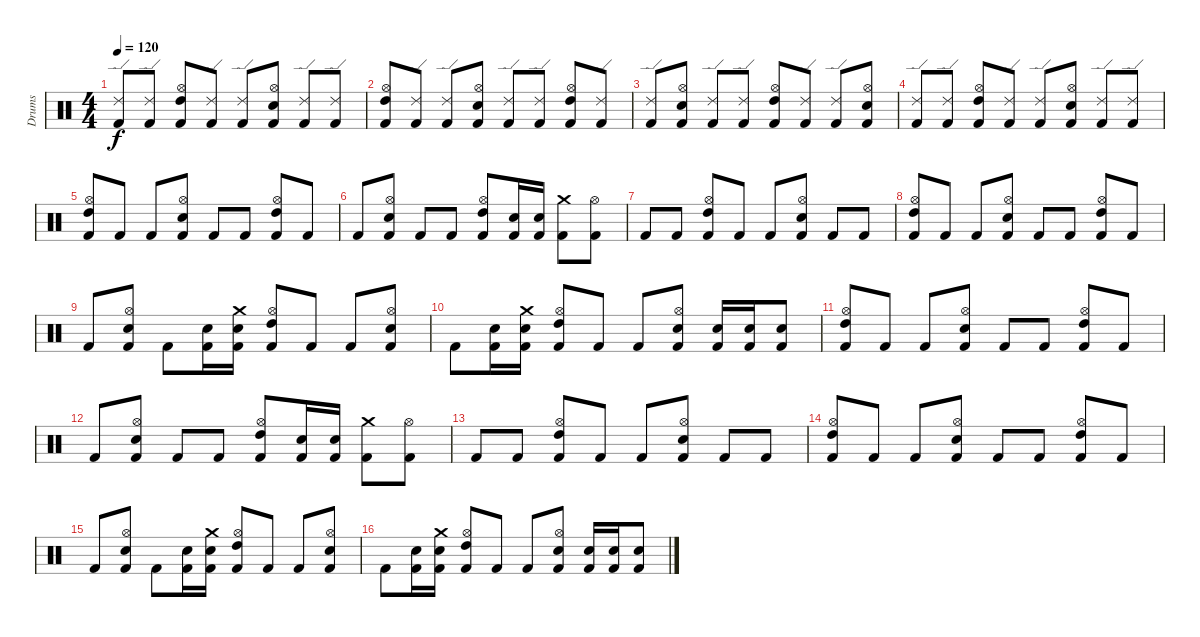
\track ("Drums" "Drums") {instrument percussion}
\staff {score}
\articulation defaults
\ts (4 4)
\tempo 120
\clef neutral
\ks c
("Ride (edge) 2" "Kick (hit) 2").8{dy f} ("Ride (edge) 2" "Kick (hit) 2").8 ("Hi-Hat (open)" "High Tom (hit)" "Kick (hit) 2").8 ("Ride (edge) 2" "Kick (hit) 2").8 ("Ride (edge) 2" "Kick (hit) 2").8 ("Hi-Hat (open)" "Snare (hit) 2" "Kick (hit) 2").8 ("Ride (edge) 2" "Kick (hit) 2").8 ("Ride (edge) 2" "Kick (hit) 2").8 |
("Hi-Hat (open)" "High Tom (hit)" "Kick (hit) 2").8 ("Ride (edge) 2" "Kick (hit) 2").8 ("Ride (edge) 2" "Kick (hit) 2").8 ("Hi-Hat (open)" "Snare (hit) 2" "Kick (hit) 2").8 ("Ride (edge) 2" "Kick (hit) 2").8 ("Ride (edge) 2" "Kick (hit) 2").8 ("Hi-Hat (open)" "High Tom (hit)" "Kick (hit) 2").8 ("Ride (edge) 2" "Kick (hit) 2").8 |
("Ride (edge) 2" "Kick (hit) 2").8 ("Hi-Hat (open)" "Snare (hit) 2" "Kick (hit) 2").8 ("Ride (edge) 2" "Kick (hit) 2").8 ("Ride (edge) 2" "Kick (hit) 2").8 ("Hi-Hat (open)" "High Tom (hit)" "Kick (hit) 2").8 ("Ride (edge) 2" "Kick (hit) 2").8 ("Ride (edge) 2" "Kick (hit) 2").8 ("Hi-Hat (open)" "Snare (hit) 2" "Kick (hit) 2").8 |
("Ride (edge) 2" "Kick (hit) 2").8 ("Ride (edge) 2" "Kick (hit) 2").8 ("Hi-Hat (open)" "High Tom (hit)" "Kick (hit) 2").8 ("Ride (edge) 2" "Kick (hit) 2").8 ("Ride (edge) 2" "Kick (hit) 2").8 ("Hi-Hat (open)" "Snare (hit) 2" "Kick (hit) 2").8 ("Ride (edge) 2" "Kick (hit) 2").8 ("Ride (edge) 2" "Kick (hit) 2").8 |
("Hi-Hat (open)" "High Tom (hit)" "Kick (hit) 2").8 "Kick (hit) 2".8 "Kick (hit) 2".8 ("Hi-Hat (open)" "Snare (hit) 2" "Kick (hit) 2").8 "Kick (hit) 2".8 "Kick (hit) 2".8 ("Hi-Hat (open)" "High Tom (hit)" "Kick (hit) 2").8 "Kick (hit) 2".8 |
"Kick (hit) 2".8 ("Hi-Hat (open)" "Snare (hit) 2" "Kick (hit) 2").8 "Kick (hit) 2".8 "Kick (hit) 2".8 ("Hi-Hat (open)" "High Tom (hit)" "Kick (hit) 2").8 ("Snare (hit) 2" "Kick (hit) 2").16 ("Snare (hit) 2" "Kick (hit) 2").16 ("Crash medium (hit)" "Kick (hit) 2").8 ("Hi-Hat (open)" "Kick (hit) 2").8 |
"Kick (hit) 2".8 "Kick (hit) 2".8 ("Hi-Hat (open)" "High Tom (hit)" "Kick (hit) 2").8 "Kick (hit) 2".8 "Kick (hit) 2".8 ("Hi-Hat (open)" "Snare (hit) 2" "Kick (hit) 2").8 "Kick (hit) 2".8 "Kick (hit) 2".8 |
("Hi-Hat (open)" "High Tom (hit)" "Kick (hit) 2").8 "Kick (hit) 2".8 "Kick (hit) 2".8 ("Hi-Hat (open)" "Snare (hit) 2" "Kick (hit) 2").8 "Kick (hit) 2".8 "Kick (hit) 2".8 ("Hi-Hat (open)" "High Tom (hit)" "Kick (hit) 2").8 "Kick (hit) 2".8 |
"Kick (hit) 2".8 ("Hi-Hat (open)" "Snare (hit) 2" "Kick (hit) 2").8 "Kick (hit) 2".8 ("Snare (hit) 2" "Kick (hit) 2").16 ("Crash medium (hit)" "Snare (hit) 2" "Kick (hit) 2").16 ("Hi-Hat (open)" "High Tom (hit)" "Kick (hit) 2").8 "Kick (hit) 2".8 "Kick (hit) 2".8 ("Hi-Hat (open)" "Snare (hit) 2" "Kick (hit) 2").8 |
"Kick (hit) 2".8 ("Snare (hit) 2" "Kick (hit) 2").16 ("Crash medium (hit)" "Snare (hit) 2" "Kick (hit) 2").16 ("Hi-Hat (open)" "High Tom (hit)" "Kick (hit) 2").8 "Kick (hit) 2".8 "Kick (hit) 2".8 ("Hi-Hat (open)" "Snare (hit) 2" "Kick (hit) 2").8 ("Snare (hit) 2" "Kick (hit) 2").16 ("Snare (hit) 2" "Kick (hit) 2").16 ("Snare (hit) 2" "Kick (hit) 2").8 |
("Hi-Hat (open)" "High Tom (hit)" "Kick (hit) 2").8 "Kick (hit) 2".8 "Kick (hit) 2".8 ("Hi-Hat (open)" "Snare (hit) 2" "Kick (hit) 2").8 "Kick (hit) 2".8 "Kick (hit) 2".8 ("Hi-Hat (open)" "High Tom (hit)" "Kick (hit) 2").8 "Kick (hit) 2".8 |
"Kick (hit) 2".8 ("Hi-Hat (open)" "Snare (hit) 2" "Kick (hit) 2").8 "Kick (hit) 2".8 "Kick (hit) 2".8 ("Hi-Hat (open)" "High Tom (hit)" "Kick (hit) 2").8 ("Snare (hit) 2" "Kick (hit) 2").16 ("Snare (hit) 2" "Kick (hit) 2").16 ("Crash medium (hit)" "Kick (hit) 2").8 ("Hi-Hat (open)" "Kick (hit) 2").8 |
"Kick (hit) 2".8 "Kick (hit) 2".8 ("Hi-Hat (open)" "High Tom (hit)" "Kick (hit) 2").8 "Kick (hit) 2".8 "Kick (hit) 2".8 ("Hi-Hat (open)" "Snare (hit) 2" "Kick (hit) 2").8 "Kick (hit) 2".8 "Kick (hit) 2".8 |
("Hi-Hat (open)" "High Tom (hit)" "Kick (hit) 2").8 "Kick (hit) 2".8 "Kick (hit) 2".8 ("Hi-Hat (open)" "Snare (hit) 2" "Kick (hit) 2").8 "Kick (hit) 2".8 "Kick (hit) 2".8 ("Hi-Hat (open)" "High Tom (hit)" "Kick (hit) 2").8 "Kick (hit) 2".8 |
"Kick (hit) 2".8 ("Hi-Hat (open)" "Snare (hit) 2" "Kick (hit) 2").8 "Kick (hit) 2".8 ("Snare (hit) 2" "Kick (hit) 2").16 ("Crash medium (hit)" "Snare (hit) 2" "Kick (hit) 2").16 ("Hi-Hat (open)" "High Tom (hit)" "Kick (hit) 2").8 "Kick (hit) 2".8 "Kick (hit) 2".8 ("Hi-Hat (open)" "Snare (hit) 2" "Kick (hit) 2").8 |
"Kick (hit) 2".8 ("Snare (hit) 2" "Kick (hit) 2").16 ("Crash medium (hit)" "Snare (hit) 2" "Kick (hit) 2").16 ("Hi-Hat (open)" "High Tom (hit)" "Kick (hit) 2").8 "Kick (hit) 2".8 "Kick (hit) 2".8 ("Hi-Hat (open)" "Snare (hit) 2" "Kick (hit) 2").8 ("Snare (hit) 2" "Kick (hit) 2").16 ("Snare (hit) 2" "Kick (hit) 2").16 ("Snare (hit) 2" "Kick (hit) 2").8
